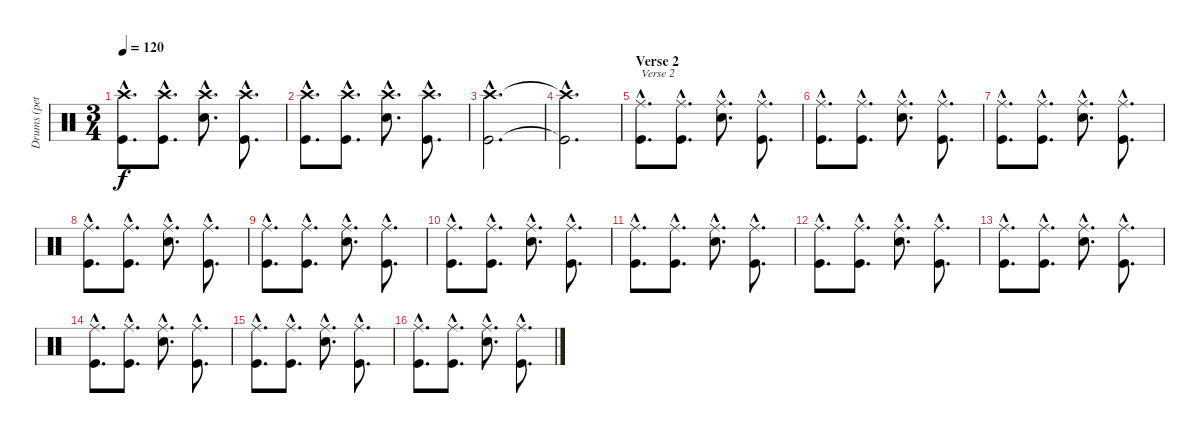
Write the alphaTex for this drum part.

\track ("Drums (pete)" "Drums (pet") {instrument percussion}
\staff {score}
\articulation defaults
\ts (3 4)
\tempo 120
\clef neutral
\ks c
("Crash high (hit)"{hac} "Kick (hit)"{hac}).8{d dy f} ("Crash high (hit)"{hac} "Kick (hit)"{hac}).8{d} ("Crash high (hit)"{hac} "Snare (hit) 2"{hac}).8{d} ("Crash high (hit)"{hac} "Kick (hit)"{hac}).8{d} |
("Crash high (hit)"{hac} "Kick (hit)"{hac}).8{d} ("Crash high (hit)"{hac} "Kick (hit)"{hac}).8{d} ("Crash high (hit)"{hac} "Snare (hit) 2"{hac}).8{d} ("Crash high (hit)"{hac} "Kick (hit)"{hac}).8{d} |
("Crash high (hit)"{hac} "Kick (hit)"{hac}).2{d} |
("Crash high (hit)"{hac t} "Kick (hit)"{hac t}).2{d} |
\section ("" "Verse 2")
("Ride (middle)"{hac} "Kick (hit)"{hac}).8{d txt "Verse 2"} ("Ride (middle)"{hac} "Kick (hit)"{hac}).8{d} ("Ride (middle)"{hac} "Snare (hit) 2"{hac}).8{d} ("Ride (middle)"{hac} "Kick (hit)"{hac}).8{d} |
("Ride (middle)"{hac} "Kick (hit)"{hac}).8{d} ("Ride (middle)"{hac} "Kick (hit)"{hac}).8{d} ("Ride (middle)"{hac} "Snare (hit) 2"{hac}).8{d} ("Ride (middle)"{hac} "Kick (hit)"{hac}).8{d} |
("Ride (middle)"{hac} "Kick (hit)"{hac}).8{d} ("Ride (middle)"{hac} "Kick (hit)"{hac}).8{d} ("Ride (middle)"{hac} "Snare (hit) 2"{hac}).8{d} ("Ride (middle)"{hac} "Kick (hit)"{hac}).8{d} |
("Ride (middle)"{hac} "Kick (hit)"{hac}).8{d} ("Ride (middle)"{hac} "Kick (hit)"{hac}).8{d} ("Ride (middle)"{hac} "Snare (hit) 2"{hac}).8{d} ("Ride (middle)"{hac} "Kick (hit)"{hac}).8{d} |
("Ride (middle)"{hac} "Kick (hit)"{hac}).8{d} ("Ride (middle)"{hac} "Kick (hit)"{hac}).8{d} ("Ride (middle)"{hac} "Snare (hit) 2"{hac}).8{d} ("Ride (middle)"{hac} "Kick (hit)"{hac}).8{d} |
("Ride (middle)"{hac} "Kick (hit)"{hac}).8{d} ("Ride (middle)"{hac} "Kick (hit)"{hac}).8{d} ("Ride (middle)"{hac} "Snare (hit) 2"{hac}).8{d} ("Ride (middle)"{hac} "Kick (hit)"{hac}).8{d} |
("Ride (middle)"{hac} "Kick (hit)"{hac}).8{d} ("Ride (middle)"{hac} "Kick (hit)"{hac}).8{d} ("Ride (middle)"{hac} "Snare (hit) 2"{hac}).8{d} ("Ride (middle)"{hac} "Kick (hit)"{hac}).8{d} |
("Ride (middle)"{hac} "Kick (hit)"{hac}).8{d} ("Ride (middle)"{hac} "Kick (hit)"{hac}).8{d} ("Ride (middle)"{hac} "Snare (hit) 2"{hac}).8{d} ("Ride (middle)"{hac} "Kick (hit)"{hac}).8{d} |
("Ride (middle)"{hac} "Kick (hit)"{hac}).8{d} ("Ride (middle)"{hac} "Kick (hit)"{hac}).8{d} ("Ride (middle)"{hac} "Snare (hit) 2"{hac}).8{d} ("Ride (middle)"{hac} "Kick (hit)"{hac}).8{d} |
("Ride (middle)"{hac} "Kick (hit)"{hac}).8{d} ("Ride (middle)"{hac} "Kick (hit)"{hac}).8{d} ("Ride (middle)"{hac} "Snare (hit) 2"{hac}).8{d} ("Ride (middle)"{hac} "Kick (hit)"{hac}).8{d} |
("Ride (middle)"{hac} "Kick (hit)"{hac}).8{d} ("Ride (middle)"{hac} "Kick (hit)"{hac}).8{d} ("Ride (middle)"{hac} "Snare (hit) 2"{hac}).8{d} ("Ride (middle)"{hac} "Kick (hit)"{hac}).8{d} |
("Ride (middle)"{hac} "Kick (hit)"{hac}).8{d} ("Ride (middle)"{hac} "Kick (hit)"{hac}).8{d} ("Ride (middle)"{hac} "Snare (hit) 2"{hac}).8{d} ("Ride (middle)"{hac} "Kick (hit)"{hac}).8{d}
